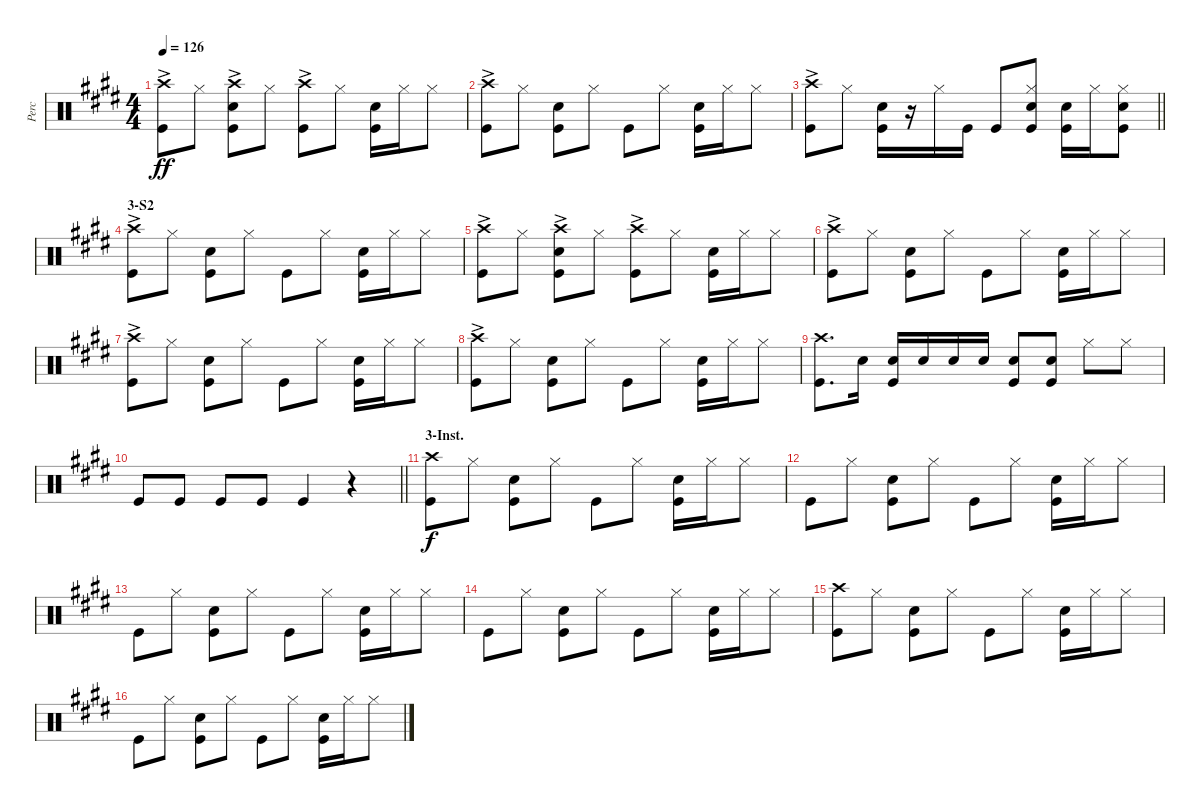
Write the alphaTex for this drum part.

\track ("Perc" "Perc") {instrument percussion}
\staff {score}
\articulation defaults
\ts (4 4)
\tempo 126
\clef neutral
\ks e
("Crash high (hit)"{ac} "Kick (hit)").8{dy ff} "Hi-Hat (closed)".8 ("Crash high (hit)"{ac} "Snare (hit) 2" "Kick (hit)").8 "Hi-Hat (closed)".8 ("Crash high (hit)"{ac} "Kick (hit)").8 "Hi-Hat (closed)".8 ("Snare (hit) 2" "Kick (hit)").16 "Hi-Hat (closed)".16 "Hi-Hat (closed)".8 |
("Crash high (hit)"{ac} "Kick (hit)").8 "Hi-Hat (closed)".8 ("Snare (hit) 2" "Kick (hit)").8 "Hi-Hat (closed)".8 "Kick (hit)".8 "Hi-Hat (closed)".8 ("Snare (hit) 2" "Kick (hit)").16 "Hi-Hat (closed)".16 "Hi-Hat (closed)".8 |
\barLineRight lightlight
("Crash high (hit)"{ac} "Kick (hit)").8 "Hi-Hat (closed)".8 ("Snare (hit) 2" "Kick (hit)").16 r.16 "Hi-Hat (closed)".16 "Kick (hit)".16 "Kick (hit)".8 ("Hi-Hat (closed)" "Snare (hit) 2" "Kick (hit)").8 ("Snare (hit) 2" "Kick (hit)").16 "Hi-Hat (closed)".16 ("Hi-Hat (closed)" "Snare (hit) 2" "Kick (hit)").8 |
\section ("" "3-S2")
("Crash high (hit)"{ac} "Kick (hit)").8 "Hi-Hat (closed)".8 ("Snare (hit) 2" "Kick (hit)").8 "Hi-Hat (closed)".8 "Kick (hit)".8 "Hi-Hat (closed)".8 ("Snare (hit) 2" "Kick (hit)").16 "Hi-Hat (closed)".16 "Hi-Hat (closed)".8 |
("Crash high (hit)"{ac} "Kick (hit)").8 "Hi-Hat (closed)".8 ("Crash high (hit)"{ac} "Snare (hit) 2" "Kick (hit)").8 "Hi-Hat (closed)".8 ("Crash high (hit)"{ac} "Kick (hit)").8 "Hi-Hat (closed)".8 ("Snare (hit) 2" "Kick (hit)").16 "Hi-Hat (closed)".16 "Hi-Hat (closed)".8 |
("Crash high (hit)"{ac} "Kick (hit)").8 "Hi-Hat (closed)".8 ("Snare (hit) 2" "Kick (hit)").8 "Hi-Hat (closed)".8 "Kick (hit)".8 "Hi-Hat (closed)".8 ("Snare (hit) 2" "Kick (hit)").16 "Hi-Hat (closed)".16 "Hi-Hat (closed)".8 |
("Crash high (hit)"{ac} "Kick (hit)").8 "Hi-Hat (closed)".8 ("Snare (hit) 2" "Kick (hit)").8 "Hi-Hat (closed)".8 "Kick (hit)".8 "Hi-Hat (closed)".8 ("Snare (hit) 2" "Kick (hit)").16 "Hi-Hat (closed)".16 "Hi-Hat (closed)".8 |
("Crash high (hit)"{ac} "Kick (hit)").8 "Hi-Hat (closed)".8 ("Snare (hit) 2" "Kick (hit)").8 "Hi-Hat (closed)".8 "Kick (hit)".8 "Hi-Hat (closed)".8 ("Snare (hit) 2" "Kick (hit)").16 "Hi-Hat (closed)".16 "Hi-Hat (closed)".8 |
("Crash high (hit)" "Kick (hit)").8{d} "Snare (hit) 2".16 ("Snare (hit) 2" "Kick (hit)").16 "Snare (hit) 2".16 "Snare (hit) 2".16 "Snare (hit) 2".16 ("Snare (hit) 2" "Kick (hit)").8 ("Snare (hit) 2" "Kick (hit)").8 "Hi-Hat (closed)".8 "Hi-Hat (closed)".8 |
\barLineRight lightlight "Kick (hit)".8 "Kick (hit)".8 "Kick (hit)".8 "Kick (hit)".8 "Kick (hit)".4
r.4 |
\section ("" "3-Inst.")
("Crash high (hit)" "Kick (hit)").8{dy f} "Hi-Hat (closed)".8 ("Snare (hit) 2" "Kick (hit)").8 "Hi-Hat (closed)".8 "Kick (hit)".8 "Hi-Hat (closed)".8 ("Snare (hit) 2" "Kick (hit)").16 "Hi-Hat (closed)".16 "Hi-Hat (closed)".8 |
"Kick (hit)".8 "Hi-Hat (closed)".8 ("Snare (hit) 2" "Kick (hit)").8 "Hi-Hat (closed)".8 "Kick (hit)".8 "Hi-Hat (closed)".8 ("Snare (hit) 2" "Kick (hit)").16 "Hi-Hat (closed)".16 "Hi-Hat (closed)".8 |
"Kick (hit)".8 "Hi-Hat (closed)".8 ("Snare (hit) 2" "Kick (hit)").8 "Hi-Hat (closed)".8 "Kick (hit)".8 "Hi-Hat (closed)".8 ("Snare (hit) 2" "Kick (hit)").16 "Hi-Hat (closed)".16 "Hi-Hat (closed)".8 |
"Kick (hit)".8 "Hi-Hat (closed)".8 ("Snare (hit) 2" "Kick (hit)").8 "Hi-Hat (closed)".8 "Kick (hit)".8 "Hi-Hat (closed)".8 ("Snare (hit) 2" "Kick (hit)").16 "Hi-Hat (closed)".16 "Hi-Hat (closed)".8 |
("Crash high (hit)" "Kick (hit)").8 "Hi-Hat (closed)".8 ("Snare (hit) 2" "Kick (hit)").8 "Hi-Hat (closed)".8 "Kick (hit)".8 "Hi-Hat (closed)".8 ("Snare (hit) 2" "Kick (hit)").16 "Hi-Hat (closed)".16 "Hi-Hat (closed)".8 |
"Kick (hit)".8 "Hi-Hat (closed)".8 ("Snare (hit) 2" "Kick (hit)").8 "Hi-Hat (closed)".8 "Kick (hit)".8 "Hi-Hat (closed)".8 ("Snare (hit) 2" "Kick (hit)").16 "Hi-Hat (closed)".16 "Hi-Hat (closed)".8
